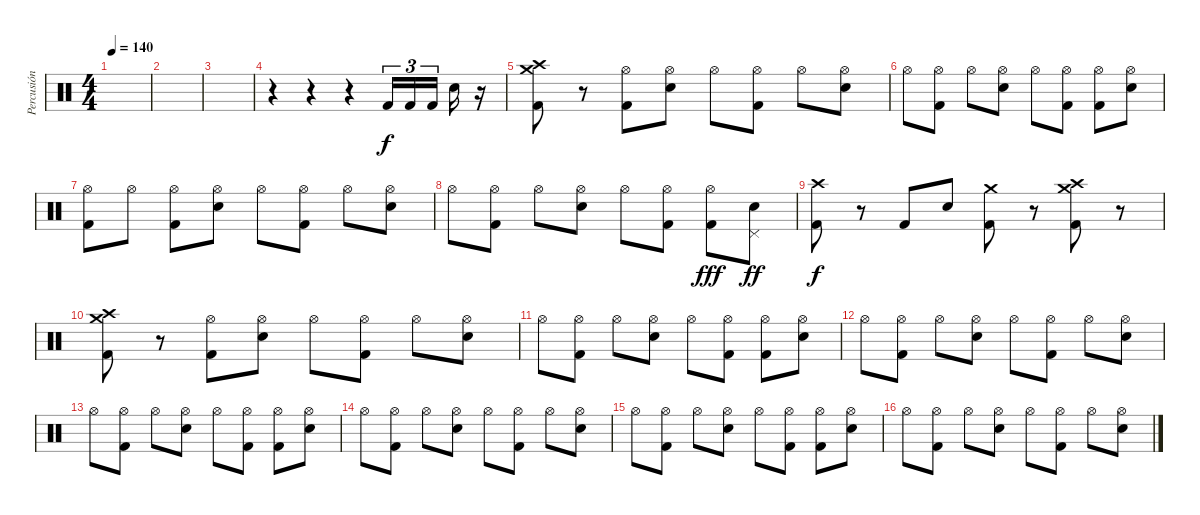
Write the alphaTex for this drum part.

\track ("Percusión" "Percusión") {instrument percussion}
\staff {score}
\articulation defaults
\ts (4 4)
\tempo 140
\clef neutral
\ks c
|
|
|
r.4 r.4 r.4 "Kick (hit) 2".16{tu (3 2)} "Kick (hit) 2".16{tu (3 2)} "Kick (hit) 2".16{tu (3 2)} "Electric Snare (hit)".16 r.16 |
("Crash high (hit)" "Crash medium (hit)" "Kick (hit) 2").8 r.8 ("Hi-Hat (open)" "Kick (hit) 2").8 ("Hi-Hat (open)" "Electric Snare (hit)").8 "Hi-Hat (open)".8 ("Hi-Hat (open)" "Kick (hit) 2").8 "Hi-Hat (open)".8 ("Hi-Hat (open)" "Electric Snare (hit)").8 |
"Hi-Hat (open)".8 ("Hi-Hat (open)" "Kick (hit) 2").8 "Hi-Hat (open)".8 ("Hi-Hat (open)" "Electric Snare (hit)").8 "Hi-Hat (open)".8 ("Hi-Hat (open)" "Kick (hit) 2").8 ("Hi-Hat (open)" "Kick (hit) 2").8 ("Hi-Hat (open)" "Electric Snare (hit)").8 |
("Hi-Hat (open)" "Kick (hit) 2").8 "Hi-Hat (open)".8 ("Hi-Hat (open)" "Kick (hit) 2").8 ("Hi-Hat (open)" "Electric Snare (hit)").8 "Hi-Hat (open)".8 ("Hi-Hat (open)" "Kick (hit) 2").8 "Hi-Hat (open)".8 ("Hi-Hat (open)" "Electric Snare (hit)").8 |
"Hi-Hat (open)".8 ("Hi-Hat (open)" "Kick (hit) 2").8 "Hi-Hat (open)".8 ("Hi-Hat (open)" "Electric Snare (hit)").8 "Hi-Hat (open)".8 ("Hi-Hat (open)" "Kick (hit) 2").8 ("Hi-Hat (open)" "Kick (hit) 2").8{dy fff} ("Pedal Hi-Hat (hit)" "Electric Snare (hit)").8{dy ff} |
("Crash high (hit)" "Kick (hit) 2").8{dy f} r.8 "Kick (hit) 2".8 "Electric Snare (hit)".8 ("Crash medium (hit)" "Kick (hit) 2").8 r.8 ("Crash high (hit)" "Crash medium (hit)" "Kick (hit) 2").8 r.8 |
("Crash high (hit)" "Crash medium (hit)" "Kick (hit) 2").8 r.8 ("Hi-Hat (open)" "Kick (hit) 2").8 ("Hi-Hat (open)" "Electric Snare (hit)").8 "Hi-Hat (open)".8 ("Hi-Hat (open)" "Kick (hit) 2").8 "Hi-Hat (open)".8 ("Hi-Hat (open)" "Electric Snare (hit)").8 |
"Hi-Hat (open)".8 ("Hi-Hat (open)" "Kick (hit) 2").8 "Hi-Hat (open)".8 ("Hi-Hat (open)" "Electric Snare (hit)").8 "Hi-Hat (open)".8 ("Hi-Hat (open)" "Kick (hit) 2").8 ("Hi-Hat (open)" "Kick (hit) 2").8 ("Hi-Hat (open)" "Electric Snare (hit)").8 |
"Hi-Hat (open)".8 ("Hi-Hat (open)" "Kick (hit) 2").8 "Hi-Hat (open)".8 ("Hi-Hat (open)" "Electric Snare (hit)").8 "Hi-Hat (open)".8 ("Hi-Hat (open)" "Kick (hit) 2").8 "Hi-Hat (open)".8 ("Hi-Hat (open)" "Electric Snare (hit)").8 |
"Hi-Hat (open)".8 ("Hi-Hat (open)" "Kick (hit) 2").8 "Hi-Hat (open)".8 ("Hi-Hat (open)" "Electric Snare (hit)").8 "Hi-Hat (open)".8 ("Hi-Hat (open)" "Kick (hit) 2").8 ("Hi-Hat (open)" "Kick (hit) 2").8 ("Hi-Hat (open)" "Electric Snare (hit)").8 |
"Hi-Hat (open)".8 ("Hi-Hat (open)" "Kick (hit) 2").8 "Hi-Hat (open)".8 ("Hi-Hat (open)" "Electric Snare (hit)").8 "Hi-Hat (open)".8 ("Hi-Hat (open)" "Kick (hit) 2").8 "Hi-Hat (open)".8 ("Hi-Hat (open)" "Electric Snare (hit)").8 |
"Hi-Hat (open)".8 ("Hi-Hat (open)" "Kick (hit) 2").8 "Hi-Hat (open)".8 ("Hi-Hat (open)" "Electric Snare (hit)").8 "Hi-Hat (open)".8 ("Hi-Hat (open)" "Kick (hit) 2").8 ("Hi-Hat (open)" "Kick (hit) 2").8 ("Hi-Hat (open)" "Electric Snare (hit)").8 |
"Hi-Hat (open)".8 ("Hi-Hat (open)" "Kick (hit) 2").8 "Hi-Hat (open)".8 ("Hi-Hat (open)" "Electric Snare (hit)").8 "Hi-Hat (open)".8 ("Hi-Hat (open)" "Kick (hit) 2").8 "Hi-Hat (open)".8 ("Hi-Hat (open)" "Electric Snare (hit)").8
